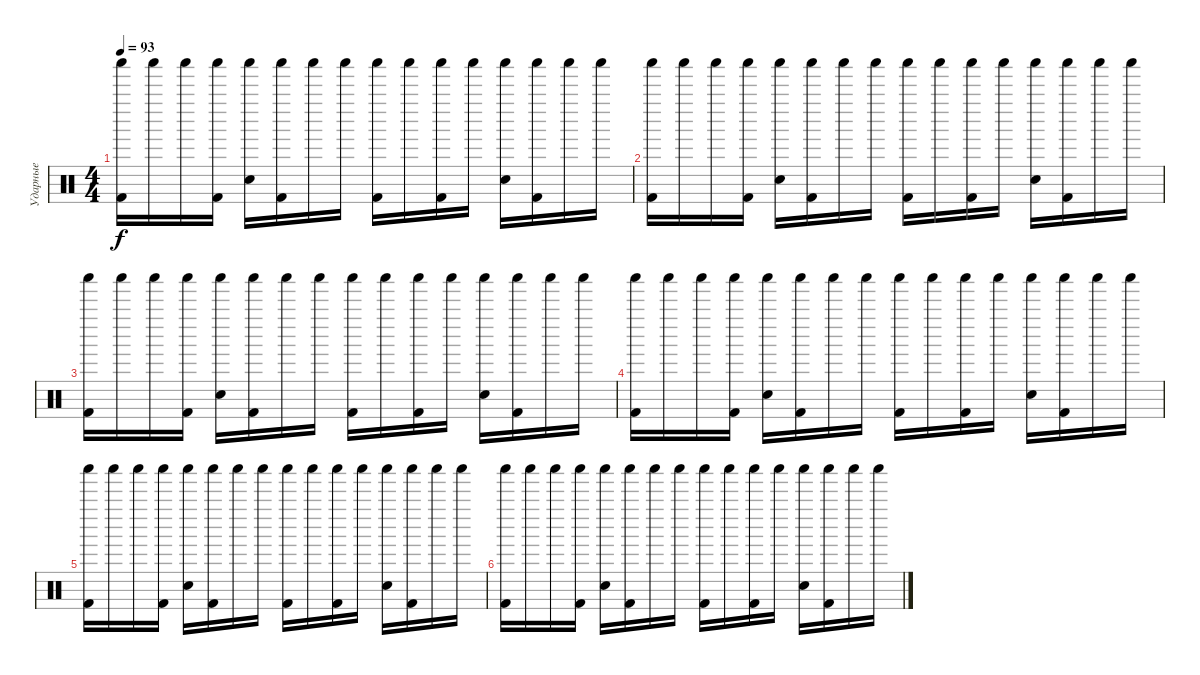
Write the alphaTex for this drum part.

\track ("Ударные" "Ударные") {instrument percussion}
\staff {score}
\articulation defaults
\ts (4 4)
\tempo 93
\clef neutral
\ks c
("Kick (hit) 2" "Shaker (hit)").16{dy f} "Shaker (hit)".16 "Shaker (hit)".16 ("Kick (hit) 2" "Shaker (hit)").16 ("Snare (hit) 2" "Shaker (hit)").16 ("Kick (hit) 2" "Shaker (hit)").16 "Shaker (hit)".16 "Shaker (hit)".16 ("Kick (hit) 2" "Shaker (hit)").16 "Shaker (hit)".16 ("Kick (hit) 2" "Shaker (hit)").16 "Shaker (hit)".16 ("Snare (hit) 2" "Shaker (hit)").16 ("Kick (hit) 2" "Shaker (hit)").16 "Shaker (hit)".16 "Shaker (hit)".16 |
("Kick (hit) 2" "Shaker (hit)").16 "Shaker (hit)".16 "Shaker (hit)".16 ("Kick (hit) 2" "Shaker (hit)").16 ("Snare (hit) 2" "Shaker (hit)").16 ("Kick (hit) 2" "Shaker (hit)").16 "Shaker (hit)".16 "Shaker (hit)".16 ("Kick (hit) 2" "Shaker (hit)").16 "Shaker (hit)".16 ("Kick (hit) 2" "Shaker (hit)").16 "Shaker (hit)".16 ("Snare (hit) 2" "Shaker (hit)").16 ("Kick (hit) 2" "Shaker (hit)").16 "Shaker (hit)".16 "Shaker (hit)".16 |
("Kick (hit) 2" "Shaker (hit)").16 "Shaker (hit)".16 "Shaker (hit)".16 ("Kick (hit) 2" "Shaker (hit)").16 ("Snare (hit) 2" "Shaker (hit)").16 ("Kick (hit) 2" "Shaker (hit)").16 "Shaker (hit)".16 "Shaker (hit)".16 ("Kick (hit) 2" "Shaker (hit)").16 "Shaker (hit)".16 ("Kick (hit) 2" "Shaker (hit)").16 "Shaker (hit)".16 ("Snare (hit) 2" "Shaker (hit)").16 ("Kick (hit) 2" "Shaker (hit)").16 "Shaker (hit)".16 "Shaker (hit)".16 |
("Kick (hit) 2" "Shaker (hit)").16 "Shaker (hit)".16 "Shaker (hit)".16 ("Kick (hit) 2" "Shaker (hit)").16 ("Snare (hit) 2" "Shaker (hit)").16 ("Kick (hit) 2" "Shaker (hit)").16 "Shaker (hit)".16 "Shaker (hit)".16 ("Kick (hit) 2" "Shaker (hit)").16 "Shaker (hit)".16 ("Kick (hit) 2" "Shaker (hit)").16 "Shaker (hit)".16 ("Snare (hit) 2" "Shaker (hit)").16 ("Kick (hit) 2" "Shaker (hit)").16 "Shaker (hit)".16 "Shaker (hit)".16 |
("Kick (hit) 2" "Shaker (hit)").16 "Shaker (hit)".16 "Shaker (hit)".16 ("Kick (hit) 2" "Shaker (hit)").16 ("Snare (hit) 2" "Shaker (hit)").16 ("Kick (hit) 2" "Shaker (hit)").16 "Shaker (hit)".16 "Shaker (hit)".16 ("Kick (hit) 2" "Shaker (hit)").16 "Shaker (hit)".16 ("Kick (hit) 2" "Shaker (hit)").16 "Shaker (hit)".16 ("Snare (hit) 2" "Shaker (hit)").16 ("Kick (hit) 2" "Shaker (hit)").16 "Shaker (hit)".16 "Shaker (hit)".16 |
("Kick (hit) 2" "Shaker (hit)").16 "Shaker (hit)".16 "Shaker (hit)".16 ("Kick (hit) 2" "Shaker (hit)").16 ("Snare (hit) 2" "Shaker (hit)").16 ("Kick (hit) 2" "Shaker (hit)").16 "Shaker (hit)".16 "Shaker (hit)".16 ("Kick (hit) 2" "Shaker (hit)").16 "Shaker (hit)".16 ("Kick (hit) 2" "Shaker (hit)").16 "Shaker (hit)".16 ("Snare (hit) 2" "Shaker (hit)").16 ("Kick (hit) 2" "Shaker (hit)").16 "Shaker (hit)".16 "Shaker (hit)".16
